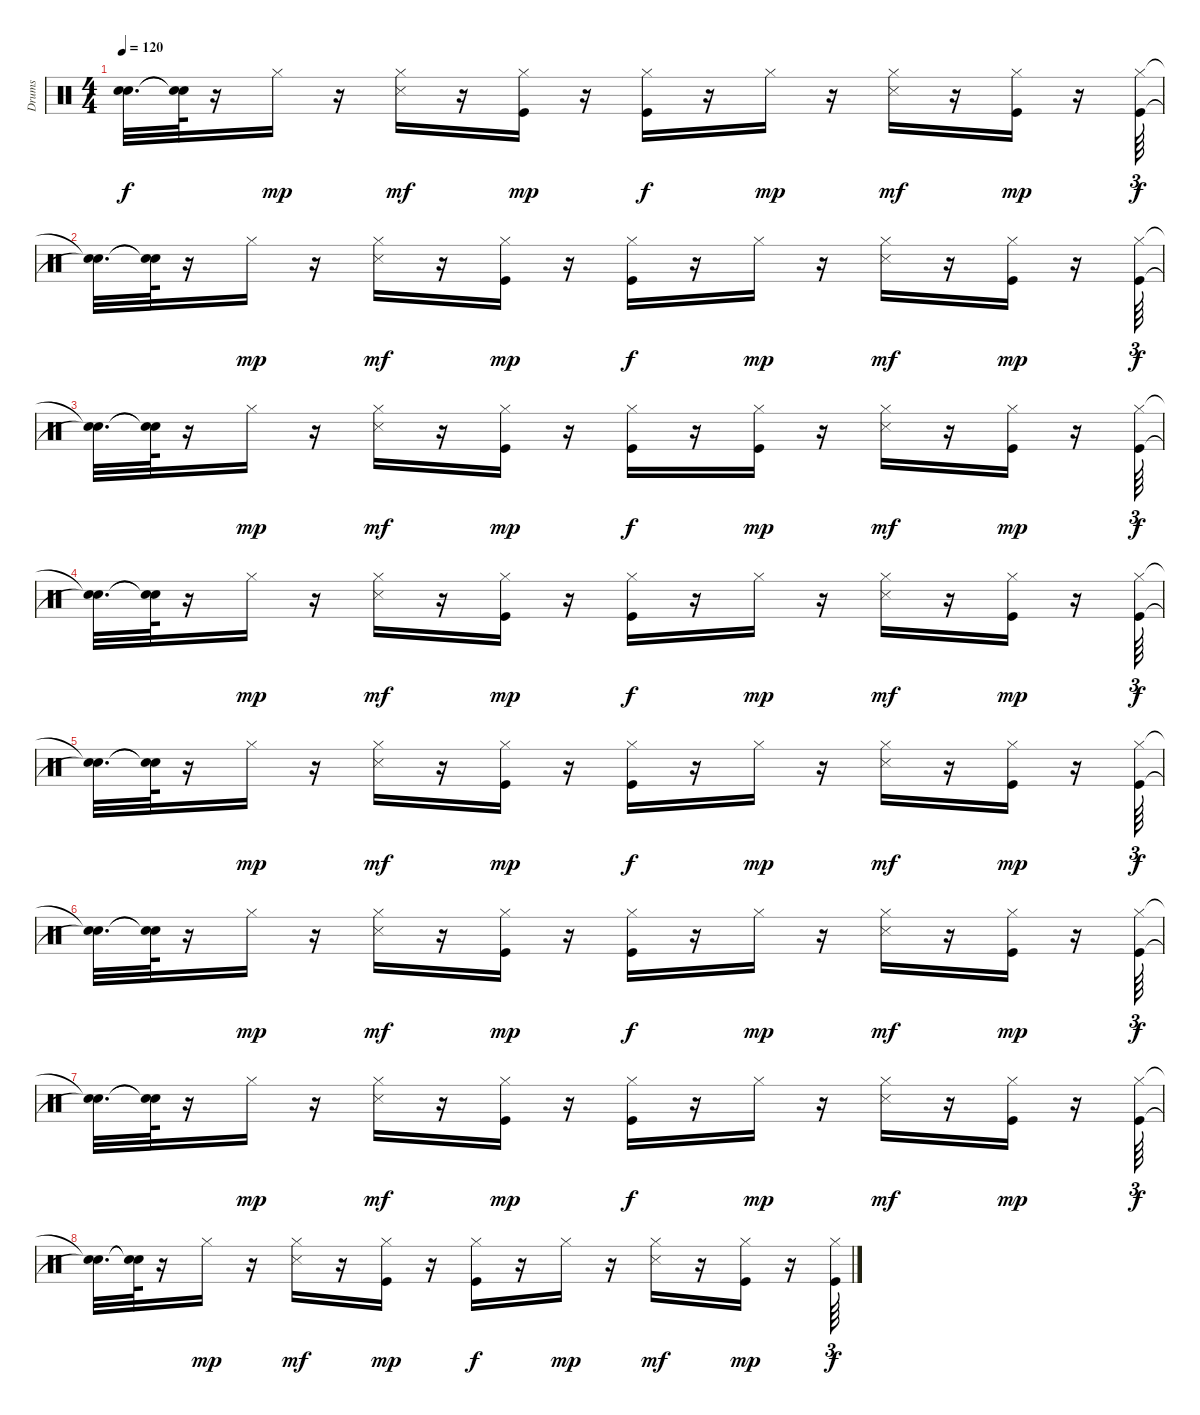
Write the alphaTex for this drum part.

\track ("Drums" "Drums") {instrument percussion}
\staff {score}
\articulation defaults
\ts (4 4)
\tempo 120
\clef neutral
\ks c
("Snare (hit)"{t} "Snare (hit)"{t}).32{d dy f} ("Snare (hit)"{t} "Snare (hit)"{t}).64 r.16 "Hi-Hat (closed)".16{dy mp} r.16 ("Hi-Hat (closed)" "Snare (side stick) 3").16{dy mf} r.16 ("Kick (hit)" "Hi-Hat (closed)").16{dy mp} r.16 ("Kick (hit)" "Hi-Hat (closed)").16{dy f} r.16 "Hi-Hat (closed)".16{dy mp} r.16 ("Hi-Hat (closed)" "Snare (side stick) 3").16{dy mf} r.16 ("Kick (hit)" "Hi-Hat (closed)").16{dy mp} r.16 ("Kick (hit)" "Hi-Hat (closed)").64{tu (3 2) dy f} |
("Snare (hit)"{t} "Snare (hit)"{t}).32{d} ("Snare (hit)"{t} "Snare (hit)"{t}).64 r.16 "Hi-Hat (closed)".16{dy mp} r.16 ("Hi-Hat (closed)" "Snare (side stick) 3").16{dy mf} r.16 ("Kick (hit)" "Hi-Hat (closed)").16{dy mp} r.16 ("Kick (hit)" "Hi-Hat (closed)").16{dy f} r.16 "Hi-Hat (closed)".16{dy mp} r.16 ("Hi-Hat (closed)" "Snare (side stick) 3").16{dy mf} r.16 ("Kick (hit)" "Hi-Hat (closed)").16{dy mp} r.16 ("Kick (hit)" "Hi-Hat (closed)").64{tu (3 2) dy f} |
("Snare (hit)"{t} "Snare (hit)"{t}).32{d} ("Snare (hit)"{t} "Snare (hit)"{t}).64 r.16 "Hi-Hat (closed)".16{dy mp} r.16 ("Hi-Hat (closed)" "Snare (side stick) 3").16{dy mf} r.16 ("Kick (hit)" "Hi-Hat (closed)").16{dy mp} r.16 ("Kick (hit)" "Hi-Hat (closed)").16{dy f} r.16 ("Kick (hit)" "Hi-Hat (closed)").16{dy mp} r.16 ("Hi-Hat (closed)" "Snare (side stick) 3").16{dy mf} r.16 ("Kick (hit)" "Hi-Hat (closed)").16{dy mp} r.16 ("Kick (hit)" "Hi-Hat (closed)").64{tu (3 2) dy f} |
("Snare (hit)"{t} "Snare (hit)"{t}).32{d} ("Snare (hit)"{t} "Snare (hit)"{t}).64 r.16 "Hi-Hat (closed)".16{dy mp} r.16 ("Hi-Hat (closed)" "Snare (side stick) 3").16{dy mf} r.16 ("Kick (hit)" "Hi-Hat (closed)").16{dy mp} r.16 ("Kick (hit)" "Hi-Hat (closed)").16{dy f} r.16 "Hi-Hat (closed)".16{dy mp} r.16 ("Hi-Hat (closed)" "Snare (side stick) 3").16{dy mf} r.16 ("Kick (hit)" "Hi-Hat (closed)").16{dy mp} r.16 ("Kick (hit)" "Hi-Hat (closed)").64{tu (3 2) dy f} |
("Snare (hit)"{t} "Snare (hit)"{t}).32{d} ("Snare (hit)"{t} "Snare (hit)"{t}).64 r.16 "Hi-Hat (closed)".16{dy mp} r.16 ("Hi-Hat (closed)" "Snare (side stick) 3").16{dy mf} r.16 ("Kick (hit)" "Hi-Hat (closed)").16{dy mp} r.16 ("Kick (hit)" "Hi-Hat (closed)").16{dy f} r.16 "Hi-Hat (closed)".16{dy mp} r.16 ("Hi-Hat (closed)" "Snare (side stick) 3").16{dy mf} r.16 ("Kick (hit)" "Hi-Hat (closed)").16{dy mp} r.16 ("Kick (hit)" "Hi-Hat (closed)").64{tu (3 2) dy f} |
("Snare (hit)"{t} "Snare (hit)"{t}).32{d} ("Snare (hit)"{t} "Snare (hit)"{t}).64 r.16 "Hi-Hat (closed)".16{dy mp} r.16 ("Hi-Hat (closed)" "Snare (side stick) 3").16{dy mf} r.16 ("Kick (hit)" "Hi-Hat (closed)").16{dy mp} r.16 ("Kick (hit)" "Hi-Hat (closed)").16{dy f} r.16 "Hi-Hat (closed)".16{dy mp} r.16 ("Hi-Hat (closed)" "Snare (side stick) 3").16{dy mf} r.16 ("Kick (hit)" "Hi-Hat (closed)").16{dy mp} r.16 ("Kick (hit)" "Hi-Hat (closed)").64{tu (3 2) dy f} |
("Snare (hit)"{t} "Snare (hit)"{t}).32{d} ("Snare (hit)"{t} "Snare (hit)"{t}).64 r.16 "Hi-Hat (closed)".16{dy mp} r.16 ("Hi-Hat (closed)" "Snare (side stick) 3").16{dy mf} r.16 ("Kick (hit)" "Hi-Hat (closed)").16{dy mp} r.16 ("Kick (hit)" "Hi-Hat (closed)").16{dy f} r.16 "Hi-Hat (closed)".16{dy mp} r.16 ("Hi-Hat (closed)" "Snare (side stick) 3").16{dy mf} r.16 ("Kick (hit)" "Hi-Hat (closed)").16{dy mp} r.16 ("Kick (hit)" "Hi-Hat (closed)").64{tu (3 2) dy f} |
("Snare (hit)"{t} "Snare (hit)"{t}).32{d} ("Snare (hit)"{t} "Snare (hit)"{t}).64 r.16 "Hi-Hat (closed)".16{dy mp} r.16 ("Hi-Hat (closed)" "Snare (side stick) 3").16{dy mf} r.16 ("Kick (hit)" "Hi-Hat (closed)").16{dy mp} r.16 ("Kick (hit)" "Hi-Hat (closed)").16{dy f} r.16 "Hi-Hat (closed)".16{dy mp} r.16 ("Hi-Hat (closed)" "Snare (side stick) 3").16{dy mf} r.16 ("Kick (hit)" "Hi-Hat (closed)").16{dy mp} r.16 ("Kick (hit)" "Hi-Hat (closed)").64{tu (3 2) dy f}
